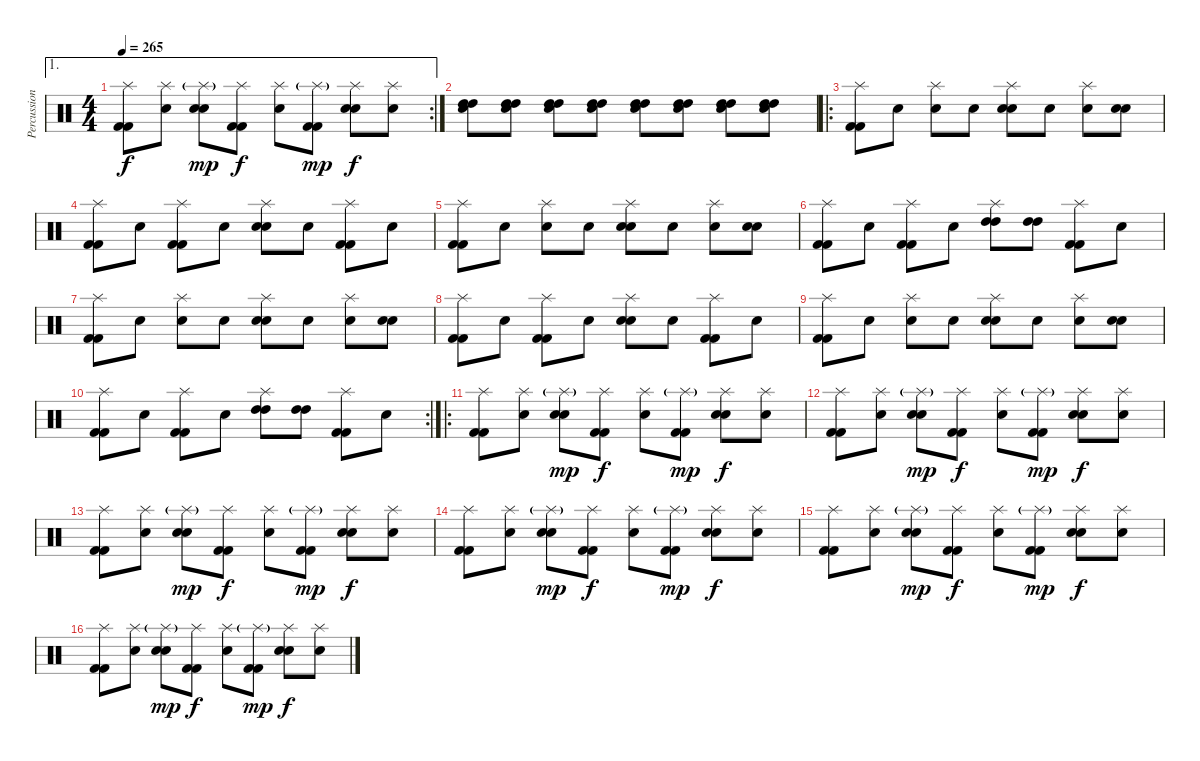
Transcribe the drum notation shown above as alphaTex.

\track ("Percussion" "Percussion") {instrument percussion}
\staff {score}
\articulation defaults
\ae 1
\rc 2
\ts (4 4)
\tempo 265
\clef neutral
\ks c
("Splash (hit)" "Kick (hit) 2" "Kick (hit) 2").8{dy f} ("Splash (hit)" "Snare (hit)").8 ("Splash (hit)"{g} "Electric Snare (hit)" "Electric Snare (hit)").8{dy mp} ("Splash (hit)" "Kick (hit) 2" "Kick (hit) 2").8{dy f} ("Splash (hit)" "Snare (hit)").8 ("Splash (hit)"{g} "Kick (hit) 2" "Kick (hit) 2").8{dy mp} ("Splash (hit)" "Electric Snare (hit)" "Electric Snare (hit)").8{dy f} ("Splash (hit)" "Snare (hit)").8 |
("High Tom (hit)" "High Tom (hit)" "Electric Snare (hit)").8 ("High Tom (hit)" "High Tom (hit)" "Electric Snare (hit)").8 ("High Tom (hit)" "High Tom (hit)" "Electric Snare (hit)").8 ("High Tom (hit)" "High Tom (hit)" "Electric Snare (hit)").8 ("High Tom (hit)" "High Tom (hit)" "Electric Snare (hit)").8 ("High Tom (hit)" "High Tom (hit)" "Electric Snare (hit)").8 ("High Tom (hit)" "High Tom (hit)" "Electric Snare (hit)").8 ("High Tom (hit)" "High Tom (hit)" "Electric Snare (hit)").8 |
\ro
("Splash (hit)" "Kick (hit) 2" "Kick (hit) 2").8 "Snare (hit)".8 ("Splash (hit)" "Snare (hit)").8 "Snare (hit)".8 ("Splash (hit)" "Electric Snare (hit)" "Electric Snare (hit)").8 "Snare (hit)".8 ("Splash (hit)" "Snare (hit)").8 ("Electric Snare (hit)" "Electric Snare (hit)").8 |
("Splash (hit)" "Kick (hit) 2" "Kick (hit) 2").8 "Snare (hit)".8 ("Splash (hit)" "Kick (hit) 2" "Kick (hit) 2").8 "Snare (hit)".8 ("Splash (hit)" "Electric Snare (hit)" "Electric Snare (hit)").8 "Snare (hit)".8 ("Splash (hit)" "Kick (hit) 2" "Kick (hit) 2").8 "Snare (hit)".8 |
("Splash (hit)" "Kick (hit) 2" "Kick (hit) 2").8 "Snare (hit)".8 ("Splash (hit)" "Snare (hit)").8 "Snare (hit)".8 ("Splash (hit)" "Electric Snare (hit)" "Electric Snare (hit)").8 "Snare (hit)".8 ("Splash (hit)" "Snare (hit)").8 ("Electric Snare (hit)" "Electric Snare (hit)").8 |
("Splash (hit)" "Kick (hit) 2" "Kick (hit) 2").8 "Snare (hit)".8 ("Splash (hit)" "Kick (hit) 2" "Kick (hit) 2").8 "Snare (hit)".8 ("Splash (hit)" "High Tom (hit)" "High Tom (hit)").8 ("High Tom (hit)" "High Tom (hit)").8 ("Splash (hit)" "Kick (hit) 2" "Kick (hit) 2").8 "Snare (hit)".8 |
("Splash (hit)" "Kick (hit) 2" "Kick (hit) 2").8 "Snare (hit)".8 ("Splash (hit)" "Snare (hit)").8 "Snare (hit)".8 ("Splash (hit)" "Electric Snare (hit)" "Electric Snare (hit)").8 "Snare (hit)".8 ("Splash (hit)" "Snare (hit)").8 ("Electric Snare (hit)" "Electric Snare (hit)").8 |
("Splash (hit)" "Kick (hit) 2" "Kick (hit) 2").8 "Snare (hit)".8 ("Splash (hit)" "Kick (hit) 2" "Kick (hit) 2").8 "Snare (hit)".8 ("Splash (hit)" "Electric Snare (hit)" "Electric Snare (hit)").8 "Snare (hit)".8 ("Splash (hit)" "Kick (hit) 2" "Kick (hit) 2").8 "Snare (hit)".8 |
("Splash (hit)" "Kick (hit) 2" "Kick (hit) 2").8 "Snare (hit)".8 ("Splash (hit)" "Snare (hit)").8 "Snare (hit)".8 ("Splash (hit)" "Electric Snare (hit)" "Electric Snare (hit)").8 "Snare (hit)".8 ("Splash (hit)" "Snare (hit)").8 ("Electric Snare (hit)" "Electric Snare (hit)").8 |
\rc 2
("Splash (hit)" "Kick (hit) 2" "Kick (hit) 2").8 "Snare (hit)".8 ("Splash (hit)" "Kick (hit) 2" "Kick (hit) 2").8 "Snare (hit)".8 ("Splash (hit)" "High Tom (hit)" "High Tom (hit)").8 ("High Tom (hit)" "High Tom (hit)").8 ("Splash (hit)" "Kick (hit) 2" "Kick (hit) 2").8 "Snare (hit)".8 |
\ro
("Splash (hit)" "Kick (hit) 2" "Kick (hit) 2").8 ("Splash (hit)" "Snare (hit)").8 ("Splash (hit)"{g} "Electric Snare (hit)" "Electric Snare (hit)").8{dy mp} ("Splash (hit)" "Kick (hit) 2" "Kick (hit) 2").8{dy f} ("Splash (hit)" "Snare (hit)").8 ("Splash (hit)"{g} "Kick (hit) 2" "Kick (hit) 2").8{dy mp} ("Splash (hit)" "Electric Snare (hit)" "Electric Snare (hit)").8{dy f} ("Splash (hit)" "Snare (hit)").8 |
("Splash (hit)" "Kick (hit) 2" "Kick (hit) 2").8 ("Splash (hit)" "Snare (hit)").8 ("Splash (hit)"{g} "Electric Snare (hit)" "Electric Snare (hit)").8{dy mp} ("Splash (hit)" "Kick (hit) 2" "Kick (hit) 2").8{dy f} ("Splash (hit)" "Snare (hit)").8 ("Splash (hit)"{g} "Kick (hit) 2" "Kick (hit) 2").8{dy mp} ("Splash (hit)" "Electric Snare (hit)" "Electric Snare (hit)").8{dy f} ("Splash (hit)" "Snare (hit)").8 |
("Splash (hit)" "Kick (hit) 2" "Kick (hit) 2").8 ("Splash (hit)" "Snare (hit)").8 ("Splash (hit)"{g} "Electric Snare (hit)" "Electric Snare (hit)").8{dy mp} ("Splash (hit)" "Kick (hit) 2" "Kick (hit) 2").8{dy f} ("Splash (hit)" "Snare (hit)").8 ("Splash (hit)"{g} "Kick (hit) 2" "Kick (hit) 2").8{dy mp} ("Splash (hit)" "Electric Snare (hit)" "Electric Snare (hit)").8{dy f} ("Splash (hit)" "Snare (hit)").8 |
("Splash (hit)" "Kick (hit) 2" "Kick (hit) 2").8 ("Splash (hit)" "Snare (hit)").8 ("Splash (hit)"{g} "Electric Snare (hit)" "Electric Snare (hit)").8{dy mp} ("Splash (hit)" "Kick (hit) 2" "Kick (hit) 2").8{dy f} ("Splash (hit)" "Snare (hit)").8 ("Splash (hit)"{g} "Kick (hit) 2" "Kick (hit) 2").8{dy mp} ("Splash (hit)" "Electric Snare (hit)" "Electric Snare (hit)").8{dy f} ("Splash (hit)" "Snare (hit)").8 |
("Splash (hit)" "Kick (hit) 2" "Kick (hit) 2").8 ("Splash (hit)" "Snare (hit)").8 ("Splash (hit)"{g} "Electric Snare (hit)" "Electric Snare (hit)").8{dy mp} ("Splash (hit)" "Kick (hit) 2" "Kick (hit) 2").8{dy f} ("Splash (hit)" "Snare (hit)").8 ("Splash (hit)"{g} "Kick (hit) 2" "Kick (hit) 2").8{dy mp} ("Splash (hit)" "Electric Snare (hit)" "Electric Snare (hit)").8{dy f} ("Splash (hit)" "Snare (hit)").8 |
("Splash (hit)" "Kick (hit) 2" "Kick (hit) 2").8 ("Splash (hit)" "Snare (hit)").8 ("Splash (hit)"{g} "Electric Snare (hit)" "Electric Snare (hit)").8{dy mp} ("Splash (hit)" "Kick (hit) 2" "Kick (hit) 2").8{dy f} ("Splash (hit)" "Snare (hit)").8 ("Splash (hit)"{g} "Kick (hit) 2" "Kick (hit) 2").8{dy mp} ("Splash (hit)" "Electric Snare (hit)" "Electric Snare (hit)").8{dy f} ("Splash (hit)" "Snare (hit)").8
